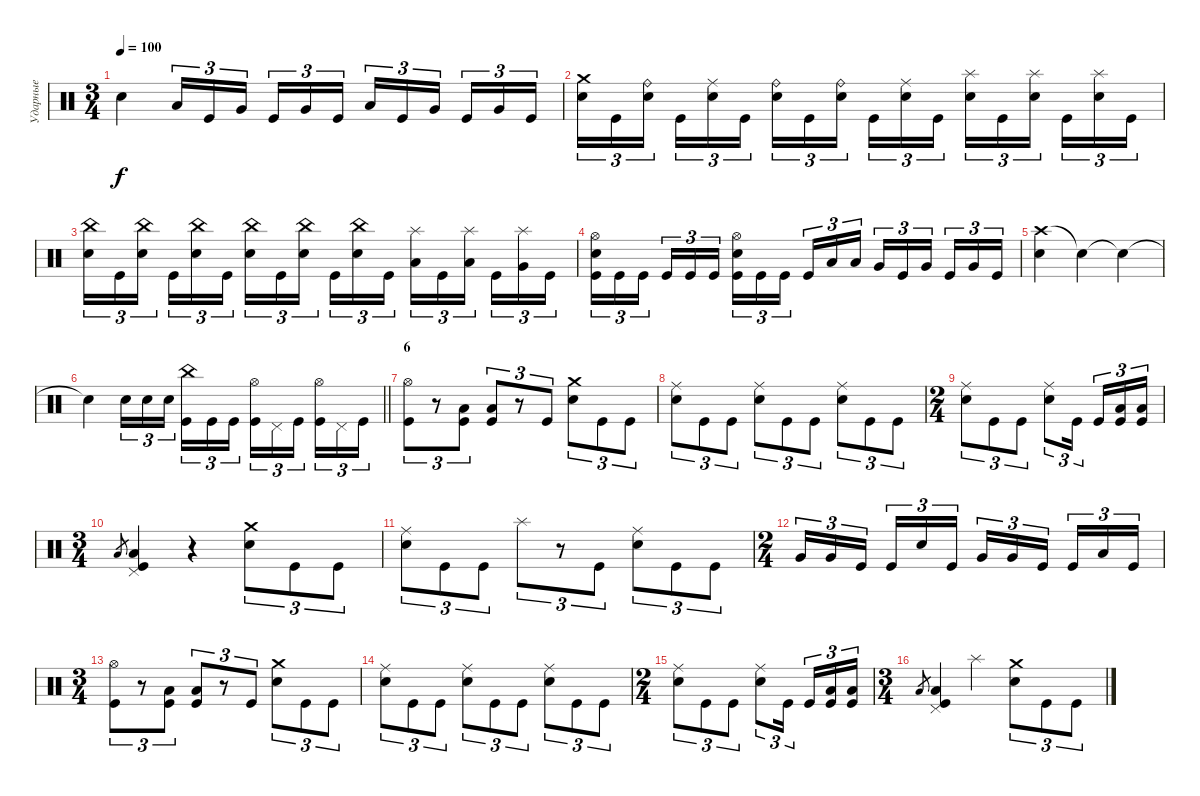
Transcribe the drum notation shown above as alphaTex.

\track ("Ударные" "Ударные") {instrument percussion}
\staff {score}
\articulation defaults
\ts (3 4)
\tempo 100
\clef neutral
\ks c "Snare (hit)"{t}.4{dy f} "Low Tom (hit)".16{tu (3 2)} "Kick (hit)".16{tu (3 2)} "Very Low Tom (hit)".16{tu (3 2) beam splitsecondary} "Kick (hit)".16{tu (3 2)} "Very Low Tom (hit)".16{tu (3 2)} "Kick (hit)".16{tu (3 2)} "Low Tom (hit)".16{tu (3 2)} "Kick (hit)".16{tu (3 2)} "Very Low Tom (hit)".16{tu (3 2) beam splitsecondary} "Kick (hit)".16{tu (3 2)} "Very Low Tom (hit)".16{tu (3 2)} "Kick (hit)".16{tu (3 2)}
|
("Crash medium (hit)" "Electric Snare (hit)").16{tu (3 2)} "Kick (hit)".16{tu (3 2)} ("Ride (bell)" "Electric Snare (hit)").16{tu (3 2) beam splitsecondary} "Kick (hit)".16{tu (3 2)} ("Ride (middle)" "Electric Snare (hit)").16{tu (3 2)} "Kick (hit)".16{tu (3 2)} ("Ride (bell)" "Electric Snare (hit)").16{tu (3 2)} "Kick (hit)".16{tu (3 2)} ("Ride (bell)" "Electric Snare (hit)").16{tu (3 2) beam splitsecondary} "Kick (hit)".16{tu (3 2)} ("Ride (middle)" "Electric Snare (hit)").16{tu (3 2)} "Kick (hit)".16{tu (3 2)} ("Splash (hit)" "Electric Snare (hit)").16{tu (3 2)} "Kick (hit)".16{tu (3 2)} ("Splash (hit)" "Electric Snare (hit)").16{tu (3 2) beam splitsecondary} "Kick (hit)".16{tu (3 2)} ("Splash (hit)" "Electric Snare (hit)").16{tu (3 2)} "Kick (hit)".16{tu (3 2)} |
("China (hit)" "Electric Snare (hit)").16{tu (3 2)} "Kick (hit)".16{tu (3 2)} ("China (hit)" "Electric Snare (hit)").16{tu (3 2) beam splitsecondary} "Kick (hit)".16{tu (3 2)} ("China (hit)" "Electric Snare (hit)").16{tu (3 2)} "Kick (hit)".16{tu (3 2)} ("China (hit)" "Electric Snare (hit)").16{tu (3 2)} "Kick (hit)".16{tu (3 2)} ("China (hit)" "Electric Snare (hit)").16{tu (3 2) beam splitsecondary} "Kick (hit)".16{tu (3 2)} ("China (hit)" "Electric Snare (hit)").16{tu (3 2)} "Kick (hit)".16{tu (3 2)} ("Splash (hit)" "Low Tom (hit)").16{tu (3 2)} "Kick (hit)".16{tu (3 2)} ("Splash (hit)" "Low Tom (hit)").16{tu (3 2) beam splitsecondary} "Kick (hit)".16{tu (3 2)} ("Splash (hit)" "Very Low Tom (hit)").16{tu (3 2)} "Kick (hit)".16{tu (3 2)} |
("Hi-Hat (open)" "Electric Snare (hit)" "Kick (hit)").16{tu (3 2)} "Kick (hit)".16{tu (3 2)} "Kick (hit)".16{tu (3 2) beam splitsecondary} "Kick (hit)".16{tu (3 2)} "Kick (hit)".16{tu (3 2)} "Kick (hit)".16{tu (3 2)} ("Hi-Hat (open)" "Electric Snare (hit)" "Kick (hit)").16{tu (3 2)} "Kick (hit)".16{tu (3 2)} "Kick (hit)".16{tu (3 2) beam splitsecondary} "Kick (hit)".16{tu (3 2)} "Low Tom (hit)".16{tu (3 2)} "Low Tom (hit)".16{tu (3 2)} "Very Low Tom (hit)".16{tu (3 2)} "Kick (hit)".16{tu (3 2)} "Very Low Tom (hit)".16{tu (3 2) beam splitsecondary} "Kick (hit)".16{tu (3 2)} "Very Low Tom (hit)".16{tu (3 2)} "Kick (hit)".16{tu (3 2)} |
("Crash high (hit)" "Electric Snare (hit)").4 "Snare (hit)"{t}.4 "Snare (hit)"{t}.4 |
\barLineRight lightlight "Snare (hit)"{t}.4 "Electric Snare (hit)".16{tu (3 2)} "Electric Snare (hit)".16{tu (3 2)} "Electric Snare (hit)".16{tu (3 2) beam splitsecondary}
("China (hit)" "Kick (hit)").16{tu (3 2)} "Kick (hit)".16{tu (3 2)} "Kick (hit)".16{tu (3 2)} ("Hi-Hat (open)" "Kick (hit)").16{tu (3 2)} "Pedal Hi-Hat (hit)".16{tu (3 2)} "Kick (hit)".16{tu (3 2) beam splitsecondary} ("Hi-Hat (open)" "Kick (hit)").16{tu (3 2)} "Pedal Hi-Hat (hit)".16{tu (3 2)} "Kick (hit)".16{tu (3 2)} |
\section ("" "6")
("Hi-Hat (open)" "Kick (hit)").8{tu (3 2)} r.8{tu (3 2)} ("Low Tom (hit)" "Kick (hit)").8{tu (3 2)} ("Low Tom (hit)" "Kick (hit)").8{tu (3 2)} r.8{tu (3 2)} "Kick (hit)".8{tu (3 2)} ("Crash medium (hit)" "Electric Snare (hit)").8{tu (3 2)} "Kick (hit)".8{tu (3 2)} "Kick (hit)".8{tu (3 2)} |
("Ride (middle)" "Electric Snare (hit)").8{tu (3 2)} "Kick (hit)".8{tu (3 2)} "Kick (hit)".8{tu (3 2)} ("Ride (middle)" "Electric Snare (hit)").8{tu (3 2)} "Kick (hit)".8{tu (3 2)} "Kick (hit)".8{tu (3 2)} ("Ride (middle)" "Electric Snare (hit)").8{tu (3 2)} "Kick (hit)".8{tu (3 2)} "Kick (hit)".8{tu (3 2)} |
\ts (2 4)
("Ride (middle)" "Electric Snare (hit)").8{tu (3 2)} "Kick (hit)".8{tu (3 2)} "Kick (hit)".8{tu (3 2)} ("Ride (middle)" "Electric Snare (hit)").8{tu (3 2)} "Kick (hit)".16{tu (3 2) beam splitsecondary} "Kick (hit)".16{tu (3 2)} ("Low Tom (hit)" "Kick (hit)").16{tu (3 2)} ("Low Tom (hit)" "Kick (hit)").16{tu (3 2)} |
\ts (3 4)
"Low Tom (hit)".8{gr} ("Pedal Hi-Hat (hit)" "Low Tom (hit)" "Kick (hit)").4 r.4 ("Crash medium (hit)" "Electric Snare (hit)").8{tu (3 2)} "Kick (hit)".8{tu (3 2)} "Kick (hit)".8{tu (3 2)} |
("Ride (middle)" "Electric Snare (hit)").8{tu (3 2)} "Kick (hit)".8{tu (3 2)} "Kick (hit)".8{tu (3 2)} "Splash (hit)".8{tu (3 2)} r.8{tu (3 2)} "Kick (hit)".8{tu (3 2)} ("Ride (middle)" "Electric Snare (hit)").8{tu (3 2)} "Kick (hit)".8{tu (3 2)} "Kick (hit)".8{tu (3 2)} |
\ts (2 4)
"Very Low Tom (hit)".16{tu (3 2)} "Very Low Tom (hit)".16{tu (3 2)} "Kick (hit)".16{tu (3 2) beam splitsecondary} "Kick (hit)".16{tu (3 2)} "Electric Snare (hit)".16{tu (3 2)} "Kick (hit)".16{tu (3 2)} "Very Low Tom (hit)".16{tu (3 2)} "Very Low Tom (hit)".16{tu (3 2)} "Kick (hit)".16{tu (3 2) beam splitsecondary} "Kick (hit)".16{tu (3 2)} "Low Floor Tom (hit)".16{tu (3 2)} "Kick (hit)".16{tu (3 2)} |
\ts (3 4)
("Hi-Hat (open)" "Kick (hit)").8{tu (3 2)} r.8{tu (3 2)} ("Low Tom (hit)" "Kick (hit)").8{tu (3 2)} ("Low Tom (hit)" "Kick (hit)").8{tu (3 2)} r.8{tu (3 2)} "Kick (hit)".8{tu (3 2)} ("Crash medium (hit)" "Electric Snare (hit)").8{tu (3 2)} "Kick (hit)".8{tu (3 2)} "Kick (hit)".8{tu (3 2)} |
("Ride (middle)" "Electric Snare (hit)").8{tu (3 2)} "Kick (hit)".8{tu (3 2)} "Kick (hit)".8{tu (3 2)} ("Ride (middle)" "Electric Snare (hit)").8{tu (3 2)} "Kick (hit)".8{tu (3 2)} "Kick (hit)".8{tu (3 2)} ("Ride (middle)" "Electric Snare (hit)").8{tu (3 2)} "Kick (hit)".8{tu (3 2)} "Kick (hit)".8{tu (3 2)} |
\ts (2 4)
("Ride (middle)" "Electric Snare (hit)").8{tu (3 2)} "Kick (hit)".8{tu (3 2)} "Kick (hit)".8{tu (3 2)} ("Ride (middle)" "Electric Snare (hit)").8{tu (3 2)} "Kick (hit)".16{tu (3 2) beam splitsecondary} "Kick (hit)".16{tu (3 2)} ("Low Tom (hit)" "Kick (hit)").16{tu (3 2)} ("Low Tom (hit)" "Kick (hit)").16{tu (3 2)} |
\ts (3 4)
"Low Tom (hit)".8{gr} ("Pedal Hi-Hat (hit)" "Low Tom (hit)" "Kick (hit)").4 "Splash (hit)".4 ("Crash medium (hit)" "Electric Snare (hit)").8{tu (3 2)} "Kick (hit)".8{tu (3 2)} "Kick (hit)".8{tu (3 2)}
